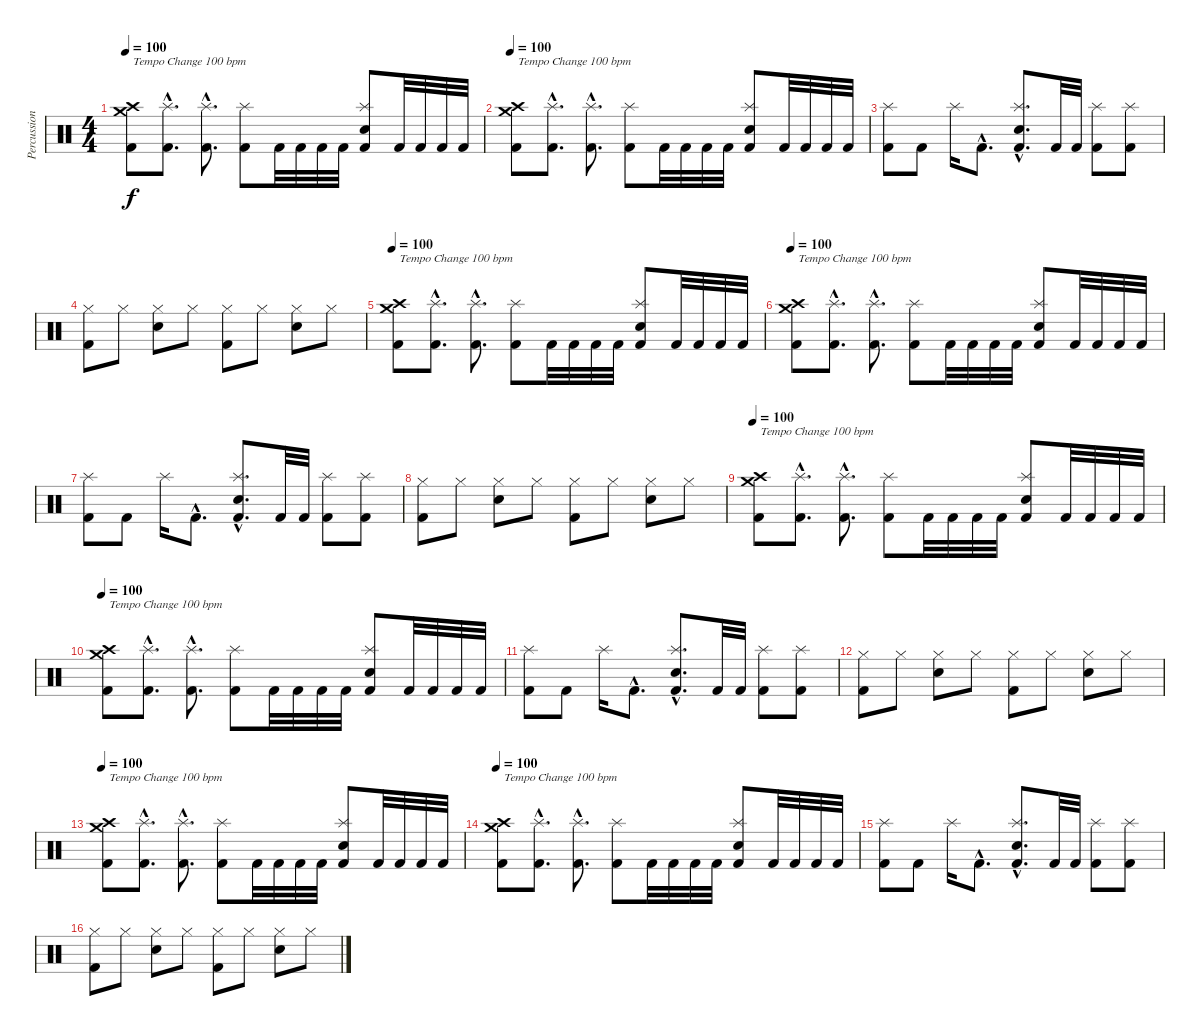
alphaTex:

\track ("Percussion" "Percussion") {instrument percussion}
\staff {score}
\articulation defaults
\ts (4 4)
\tempo 100
\clef neutral
\ks c
("Kick (hit) 2" "Crash high (hit)" "Crash medium (hit)").8{txt "Tempo Change 100 bpm" dy f} ("Kick (hit) 2"{hac} "Splash (hit)"{hac}).8{d} ("Kick (hit) 2"{hac} "Splash (hit)"{hac}).8{d} ("Kick (hit) 2" "Splash (hit)").8 "Kick (hit) 2".32 "Kick (hit) 2".32 "Kick (hit) 2".32 "Kick (hit) 2".32 ("Kick (hit) 2" "Splash (hit)" "Snare (hit) 2").8 "Kick (hit) 2".32 "Kick (hit) 2".32 "Kick (hit) 2".32 "Kick (hit) 2".32 |
\tempo 100
("Kick (hit) 2" "Crash high (hit)" "Crash medium (hit)").8{txt "Tempo Change 100 bpm"} ("Kick (hit) 2"{hac} "Splash (hit)"{hac}).8{d} ("Kick (hit) 2"{hac} "Splash (hit)"{hac}).8{d} ("Kick (hit) 2" "Splash (hit)").8 "Kick (hit) 2".32 "Kick (hit) 2".32 "Kick (hit) 2".32 "Kick (hit) 2".32 ("Kick (hit) 2" "Splash (hit)" "Snare (hit) 2").8 "Kick (hit) 2".32 "Kick (hit) 2".32 "Kick (hit) 2".32 "Kick (hit) 2".32 |
("Kick (hit) 2" "Splash (hit)").8 "Kick (hit) 2".8 "Splash (hit)".16 "Kick (hit) 2"{hac}.8{d} ("Kick (hit) 2"{hac} "Splash (hit)"{hac} "Snare (hit) 2"{hac}).8{d} "Kick (hit) 2".32 "Kick (hit) 2".32 ("Kick (hit) 2" "Splash (hit)").8 ("Kick (hit) 2" "Splash (hit)").8 |
("Kick (hit) 2" "Hi-Hat (closed)").8 "Hi-Hat (closed)".8 ("Hi-Hat (closed)" "Snare (hit) 2").8 "Hi-Hat (closed)".8 ("Kick (hit) 2" "Hi-Hat (closed)").8 "Hi-Hat (closed)".8 ("Hi-Hat (closed)" "Snare (hit) 2").8 "Hi-Hat (closed)".8 |
\tempo 100
("Kick (hit) 2" "Crash high (hit)" "Crash medium (hit)").8{txt "Tempo Change 100 bpm"} ("Kick (hit) 2"{hac} "Splash (hit)"{hac}).8{d} ("Kick (hit) 2"{hac} "Splash (hit)"{hac}).8{d} ("Kick (hit) 2" "Splash (hit)").8 "Kick (hit) 2".32 "Kick (hit) 2".32 "Kick (hit) 2".32 "Kick (hit) 2".32 ("Kick (hit) 2" "Splash (hit)" "Snare (hit) 2").8 "Kick (hit) 2".32 "Kick (hit) 2".32 "Kick (hit) 2".32 "Kick (hit) 2".32 |
\tempo 100
("Kick (hit) 2" "Crash high (hit)" "Crash medium (hit)").8{txt "Tempo Change 100 bpm"} ("Kick (hit) 2"{hac} "Splash (hit)"{hac}).8{d} ("Kick (hit) 2"{hac} "Splash (hit)"{hac}).8{d} ("Kick (hit) 2" "Splash (hit)").8 "Kick (hit) 2".32 "Kick (hit) 2".32 "Kick (hit) 2".32 "Kick (hit) 2".32 ("Kick (hit) 2" "Splash (hit)" "Snare (hit) 2").8 "Kick (hit) 2".32 "Kick (hit) 2".32 "Kick (hit) 2".32 "Kick (hit) 2".32 |
("Kick (hit) 2" "Splash (hit)").8 "Kick (hit) 2".8 "Splash (hit)".16 "Kick (hit) 2"{hac}.8{d} ("Kick (hit) 2"{hac} "Splash (hit)"{hac} "Snare (hit) 2"{hac}).8{d} "Kick (hit) 2".32 "Kick (hit) 2".32 ("Kick (hit) 2" "Splash (hit)").8 ("Kick (hit) 2" "Splash (hit)").8 |
("Kick (hit) 2" "Hi-Hat (closed)").8 "Hi-Hat (closed)".8 ("Hi-Hat (closed)" "Snare (hit) 2").8 "Hi-Hat (closed)".8 ("Kick (hit) 2" "Hi-Hat (closed)").8 "Hi-Hat (closed)".8 ("Hi-Hat (closed)" "Snare (hit) 2").8 "Hi-Hat (closed)".8 |
\tempo 100
("Kick (hit) 2" "Crash high (hit)" "Crash medium (hit)").8{txt "Tempo Change 100 bpm"} ("Kick (hit) 2"{hac} "Splash (hit)"{hac}).8{d} ("Kick (hit) 2"{hac} "Splash (hit)"{hac}).8{d} ("Kick (hit) 2" "Splash (hit)").8 "Kick (hit) 2".32 "Kick (hit) 2".32 "Kick (hit) 2".32 "Kick (hit) 2".32 ("Kick (hit) 2" "Splash (hit)" "Snare (hit) 2").8 "Kick (hit) 2".32 "Kick (hit) 2".32 "Kick (hit) 2".32 "Kick (hit) 2".32 |
\tempo 100
("Kick (hit) 2" "Crash high (hit)" "Crash medium (hit)").8{txt "Tempo Change 100 bpm"} ("Kick (hit) 2"{hac} "Splash (hit)"{hac}).8{d} ("Kick (hit) 2"{hac} "Splash (hit)"{hac}).8{d} ("Kick (hit) 2" "Splash (hit)").8 "Kick (hit) 2".32 "Kick (hit) 2".32 "Kick (hit) 2".32 "Kick (hit) 2".32 ("Kick (hit) 2" "Splash (hit)" "Snare (hit) 2").8 "Kick (hit) 2".32 "Kick (hit) 2".32 "Kick (hit) 2".32 "Kick (hit) 2".32 |
("Kick (hit) 2" "Splash (hit)").8 "Kick (hit) 2".8 "Splash (hit)".16 "Kick (hit) 2"{hac}.8{d} ("Kick (hit) 2"{hac} "Splash (hit)"{hac} "Snare (hit) 2"{hac}).8{d} "Kick (hit) 2".32 "Kick (hit) 2".32 ("Kick (hit) 2" "Splash (hit)").8 ("Kick (hit) 2" "Splash (hit)").8 |
("Kick (hit) 2" "Hi-Hat (closed)").8 "Hi-Hat (closed)".8 ("Hi-Hat (closed)" "Snare (hit) 2").8 "Hi-Hat (closed)".8 ("Kick (hit) 2" "Hi-Hat (closed)").8 "Hi-Hat (closed)".8 ("Hi-Hat (closed)" "Snare (hit) 2").8 "Hi-Hat (closed)".8 |
\tempo 100
("Kick (hit) 2" "Crash high (hit)" "Crash medium (hit)").8{txt "Tempo Change 100 bpm"} ("Kick (hit) 2"{hac} "Splash (hit)"{hac}).8{d} ("Kick (hit) 2"{hac} "Splash (hit)"{hac}).8{d} ("Kick (hit) 2" "Splash (hit)").8 "Kick (hit) 2".32 "Kick (hit) 2".32 "Kick (hit) 2".32 "Kick (hit) 2".32 ("Kick (hit) 2" "Splash (hit)" "Snare (hit) 2").8 "Kick (hit) 2".32 "Kick (hit) 2".32 "Kick (hit) 2".32 "Kick (hit) 2".32 |
\tempo 100
("Kick (hit) 2" "Crash high (hit)" "Crash medium (hit)").8{txt "Tempo Change 100 bpm"} ("Kick (hit) 2"{hac} "Splash (hit)"{hac}).8{d} ("Kick (hit) 2"{hac} "Splash (hit)"{hac}).8{d} ("Kick (hit) 2" "Splash (hit)").8 "Kick (hit) 2".32 "Kick (hit) 2".32 "Kick (hit) 2".32 "Kick (hit) 2".32 ("Kick (hit) 2" "Splash (hit)" "Snare (hit) 2").8 "Kick (hit) 2".32 "Kick (hit) 2".32 "Kick (hit) 2".32 "Kick (hit) 2".32 |
("Kick (hit) 2" "Splash (hit)").8 "Kick (hit) 2".8 "Splash (hit)".16 "Kick (hit) 2"{hac}.8{d} ("Kick (hit) 2"{hac} "Splash (hit)"{hac} "Snare (hit) 2"{hac}).8{d} "Kick (hit) 2".32 "Kick (hit) 2".32 ("Kick (hit) 2" "Splash (hit)").8 ("Kick (hit) 2" "Splash (hit)").8 |
("Kick (hit) 2" "Hi-Hat (closed)").8 "Hi-Hat (closed)".8 ("Hi-Hat (closed)" "Snare (hit) 2").8 "Hi-Hat (closed)".8 ("Kick (hit) 2" "Hi-Hat (closed)").8 "Hi-Hat (closed)".8 ("Hi-Hat (closed)" "Snare (hit) 2").8 "Hi-Hat (closed)".8
